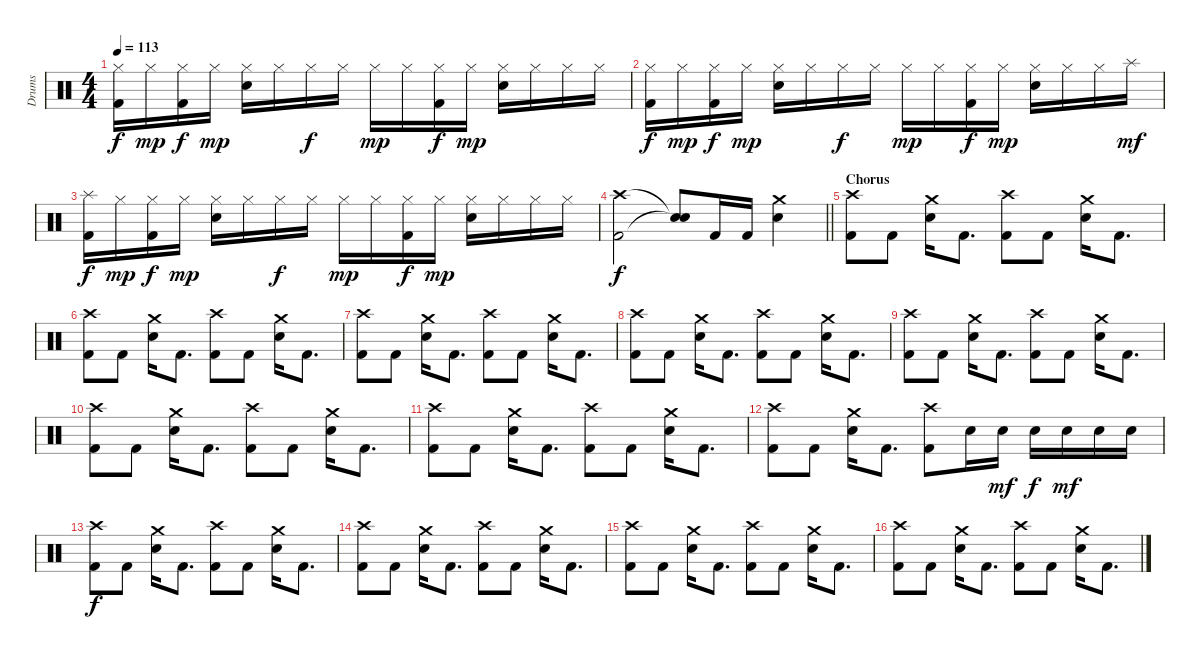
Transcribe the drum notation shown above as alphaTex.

\track ("Drums" "Drums") {instrument percussion}
\staff {score}
\articulation defaults
\ts (4 4)
\tempo 113
\clef neutral
\ks c
("Kick (hit) 2" "Hi-Hat (closed)").16{dy f} "Hi-Hat (closed)".16{dy mp} ("Kick (hit) 2" "Hi-Hat (closed)").16{dy f} "Hi-Hat (closed)".16{dy mp} ("Hi-Hat (closed)" "Electric Snare (hit)").16 "Hi-Hat (closed)".16 "Hi-Hat (closed)".16{dy f} "Hi-Hat (closed)".16 "Hi-Hat (closed)".16{dy mp} "Hi-Hat (closed)".16 ("Kick (hit) 2" "Hi-Hat (closed)").16{dy f} "Hi-Hat (closed)".16{dy mp} ("Hi-Hat (closed)" "Electric Snare (hit)").16 "Hi-Hat (closed)".16 "Hi-Hat (closed)".16 "Hi-Hat (closed)".16 |
("Kick (hit) 2" "Hi-Hat (closed)").16{dy f} "Hi-Hat (closed)".16{dy mp} ("Kick (hit) 2" "Hi-Hat (closed)").16{dy f} "Hi-Hat (closed)".16{dy mp} ("Hi-Hat (closed)" "Electric Snare (hit)").16 "Hi-Hat (closed)".16 "Hi-Hat (closed)".16{dy f} "Hi-Hat (closed)".16 "Hi-Hat (closed)".16{dy mp} "Hi-Hat (closed)".16 ("Kick (hit) 2" "Hi-Hat (closed)").16{dy f} "Hi-Hat (closed)".16{dy mp} ("Hi-Hat (closed)" "Electric Snare (hit)").16 "Hi-Hat (closed)".16 "Hi-Hat (closed)".16 "Splash (hit)".16{dy mf} |
("Kick (hit) 2" "Splash (hit)").16{dy f} "Hi-Hat (closed)".16{dy mp} ("Kick (hit) 2" "Hi-Hat (closed)").16{dy f} "Hi-Hat (closed)".16{dy mp} ("Hi-Hat (closed)" "Electric Snare (hit)").16 "Hi-Hat (closed)".16 "Hi-Hat (closed)".16{dy f} "Hi-Hat (closed)".16 "Hi-Hat (closed)".16{dy mp} "Hi-Hat (closed)".16 ("Kick (hit) 2" "Hi-Hat (closed)").16{dy f} "Hi-Hat (closed)".16{dy mp} ("Hi-Hat (closed)" "Electric Snare (hit)").16 "Hi-Hat (closed)".16 "Hi-Hat (closed)".16 "Hi-Hat (closed)".16 |
\barLineRight lightlight
("Kick (hit) 2" "Crash high (hit)").2{dy f} ("Snare (hit)"{t} "Snare (hit)"{t}).8 "Kick (hit) 2".16 "Kick (hit) 2".16 ("Crash medium (hit)" "Electric Snare (hit)").4 |
\section ("" "Chorus")
("Kick (hit) 2" "Crash high (hit)").8 "Kick (hit) 2".8 ("Crash medium (hit)" "Electric Snare (hit)").16 "Kick (hit) 2".8{d} ("Kick (hit) 2" "Crash high (hit)").8 "Kick (hit) 2".8 ("Crash medium (hit)" "Electric Snare (hit)").16 "Kick (hit) 2".8{d} |
("Kick (hit) 2" "Crash high (hit)").8 "Kick (hit) 2".8 ("Crash medium (hit)" "Electric Snare (hit)").16 "Kick (hit) 2".8{d} ("Kick (hit) 2" "Crash high (hit)").8 "Kick (hit) 2".8 ("Crash medium (hit)" "Electric Snare (hit)").16 "Kick (hit) 2".8{d} |
("Kick (hit) 2" "Crash high (hit)").8 "Kick (hit) 2".8 ("Crash medium (hit)" "Electric Snare (hit)").16 "Kick (hit) 2".8{d} ("Kick (hit) 2" "Crash high (hit)").8 "Kick (hit) 2".8 ("Crash medium (hit)" "Electric Snare (hit)").16 "Kick (hit) 2".8{d} |
("Kick (hit) 2" "Crash high (hit)").8 "Kick (hit) 2".8 ("Crash medium (hit)" "Electric Snare (hit)").16 "Kick (hit) 2".8{d} ("Kick (hit) 2" "Crash high (hit)").8 "Kick (hit) 2".8 ("Crash medium (hit)" "Electric Snare (hit)").16 "Kick (hit) 2".8{d} |
("Kick (hit) 2" "Crash high (hit)").8 "Kick (hit) 2".8 ("Crash medium (hit)" "Electric Snare (hit)").16 "Kick (hit) 2".8{d} ("Kick (hit) 2" "Crash high (hit)").8 "Kick (hit) 2".8 ("Crash medium (hit)" "Electric Snare (hit)").16 "Kick (hit) 2".8{d} |
("Kick (hit) 2" "Crash high (hit)").8 "Kick (hit) 2".8 ("Crash medium (hit)" "Electric Snare (hit)").16 "Kick (hit) 2".8{d} ("Kick (hit) 2" "Crash high (hit)").8 "Kick (hit) 2".8 ("Crash medium (hit)" "Electric Snare (hit)").16 "Kick (hit) 2".8{d} |
("Kick (hit) 2" "Crash high (hit)").8 "Kick (hit) 2".8 ("Crash medium (hit)" "Electric Snare (hit)").16 "Kick (hit) 2".8{d} ("Kick (hit) 2" "Crash high (hit)").8 "Kick (hit) 2".8 ("Crash medium (hit)" "Electric Snare (hit)").16 "Kick (hit) 2".8{d} |
("Kick (hit) 2" "Crash high (hit)").8 "Kick (hit) 2".8 ("Crash medium (hit)" "Electric Snare (hit)").16 "Kick (hit) 2".8{d} ("Kick (hit) 2" "Crash high (hit)").8 "Electric Snare (hit)".16 "Electric Snare (hit)".16{dy mf} "Electric Snare (hit)".16{dy f} "Electric Snare (hit)".16{dy mf} "Electric Snare (hit)".16 "Electric Snare (hit)".16 |
("Kick (hit) 2" "Crash high (hit)").8{dy f} "Kick (hit) 2".8 ("Crash medium (hit)" "Electric Snare (hit)").16 "Kick (hit) 2".8{d} ("Kick (hit) 2" "Crash high (hit)").8 "Kick (hit) 2".8 ("Crash medium (hit)" "Electric Snare (hit)").16 "Kick (hit) 2".8{d} |
("Kick (hit) 2" "Crash high (hit)").8 "Kick (hit) 2".8 ("Crash medium (hit)" "Electric Snare (hit)").16 "Kick (hit) 2".8{d} ("Kick (hit) 2" "Crash high (hit)").8 "Kick (hit) 2".8 ("Crash medium (hit)" "Electric Snare (hit)").16 "Kick (hit) 2".8{d} |
("Kick (hit) 2" "Crash high (hit)").8 "Kick (hit) 2".8 ("Crash medium (hit)" "Electric Snare (hit)").16 "Kick (hit) 2".8{d} ("Kick (hit) 2" "Crash high (hit)").8 "Kick (hit) 2".8 ("Crash medium (hit)" "Electric Snare (hit)").16 "Kick (hit) 2".8{d} |
("Kick (hit) 2" "Crash high (hit)").8 "Kick (hit) 2".8 ("Crash medium (hit)" "Electric Snare (hit)").16 "Kick (hit) 2".8{d} ("Kick (hit) 2" "Crash high (hit)").8 "Kick (hit) 2".8 ("Crash medium (hit)" "Electric Snare (hit)").16 "Kick (hit) 2".8{d}
